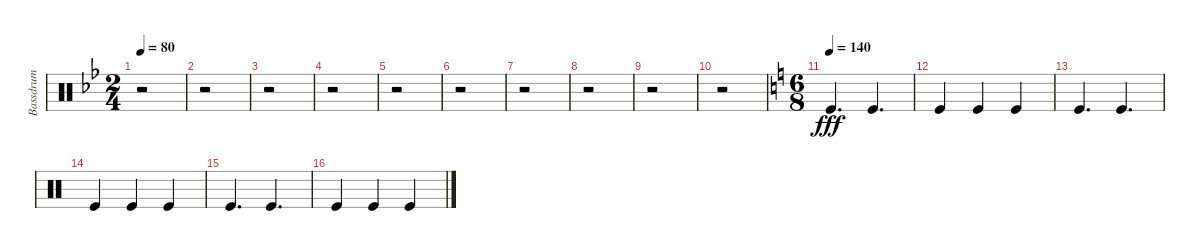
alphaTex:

\track ("Bassdrum" "Bassdrum") {instrument percussion}
\staff {score}
\articulation defaults
\ts (2 4)
\tempo 80
\clef neutral
\ks bb
r.2{dy fff} |
r.2 |
r.2 |
r.2 |
r.2 |
r.2 |
r.2 |
r.2 |
r.2 |
r.2 |
\ts (6 8)
\tempo 140
\ks c "Kick (hit)".4{d} "Kick (hit)".4{d}
|
"Kick (hit)".4 "Kick (hit)".4 "Kick (hit)".4 |
"Kick (hit)".4{d} "Kick (hit)".4{d} |
"Kick (hit)".4 "Kick (hit)".4 "Kick (hit)".4 |
"Kick (hit)".4{d} "Kick (hit)".4{d} |
"Kick (hit)".4 "Kick (hit)".4 "Kick (hit)".4
